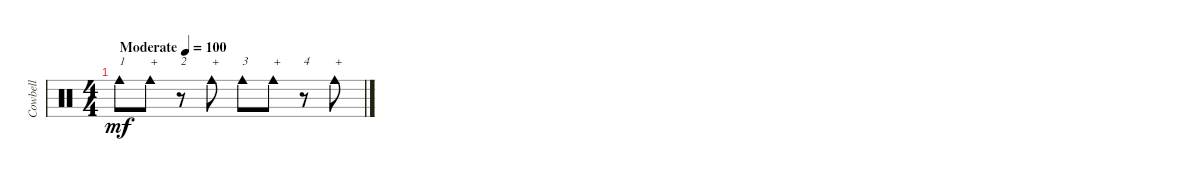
\track ("Cowbell" "Cowbell") {instrument percussion}
\staff {score}
\articulation defaults
\ts (4 4)
\tempo (100 "Moderate")
\clef neutral
\ks c "Cowbell medium (hit)".8{txt "1" dy mf} "Cowbell medium (hit)".8{txt "+"}
r.8{txt "2"} "Cowbell medium (hit)".8{txt "+"} "Cowbell medium (hit)".8{txt "3"} "Cowbell medium (hit)".8{txt "+"} r.8{txt "4"} "Cowbell medium (hit)".8{txt "+"}
